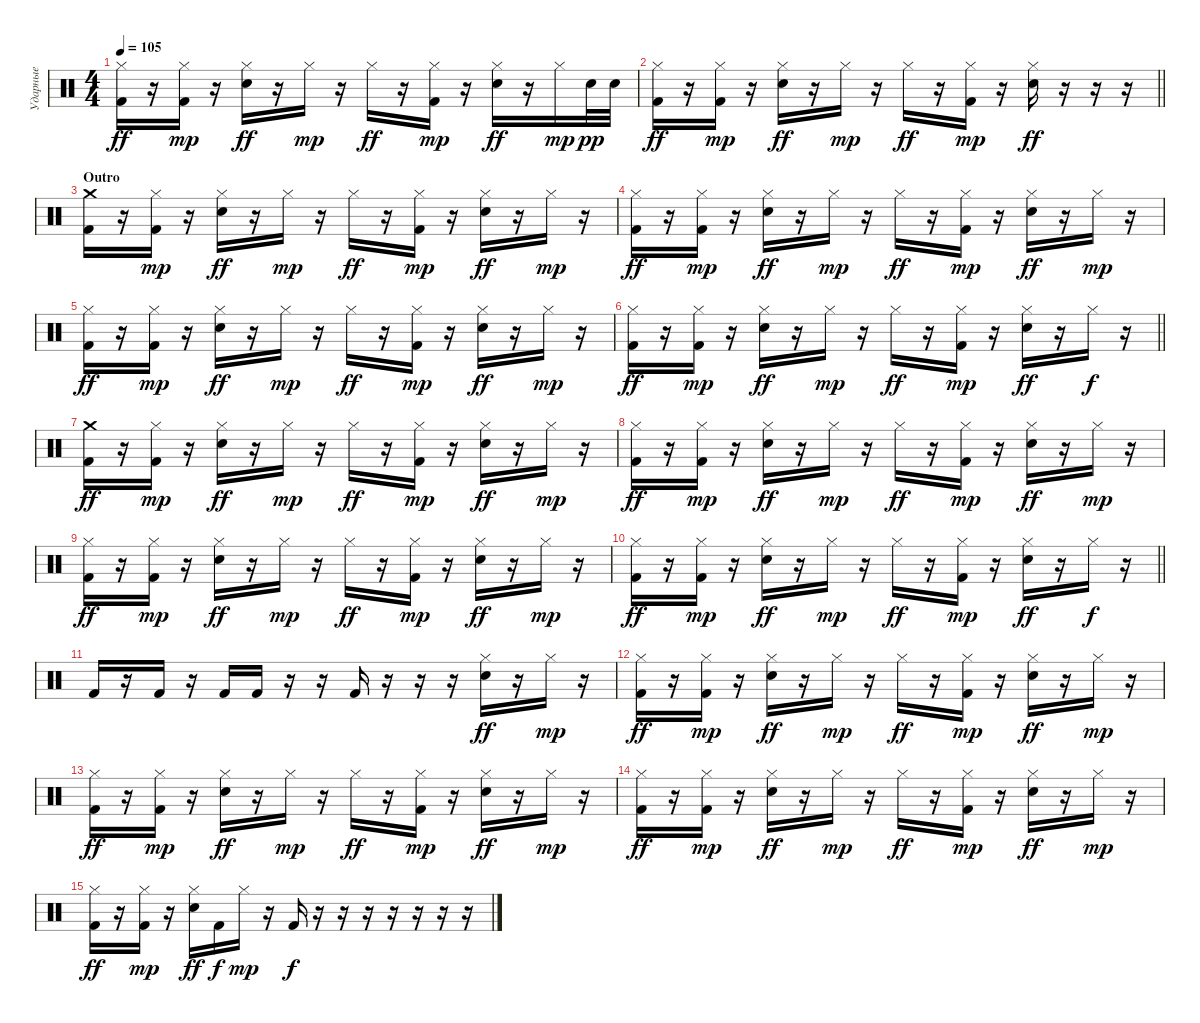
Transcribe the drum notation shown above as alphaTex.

\track ("Ударные" "Ударные") {instrument percussion}
\staff {score}
\articulation defaults
\ts (4 4)
\tempo 105
\clef neutral
\ks c
("Hi-Hat (closed)" "Kick (hit) 2").16{dy ff} r.16 ("Hi-Hat (closed)" "Kick (hit) 2").16{dy mp} r.16 ("Hi-Hat (closed)" "Electric Snare (hit)").16{dy ff} r.16 "Hi-Hat (closed)".16{dy mp} r.16 "Hi-Hat (closed)".16{dy ff} r.16 ("Hi-Hat (closed)" "Kick (hit) 2").16{dy mp} r.16 ("Hi-Hat (closed)" "Electric Snare (hit)").16{dy ff} r.16 "Hi-Hat (closed)".16{dy mp} "Electric Snare (hit)".32{dy pp} "Electric Snare (hit)".32 |
\barLineRight lightlight
("Hi-Hat (closed)" "Kick (hit) 2").16{dy ff} r.16 ("Hi-Hat (closed)" "Kick (hit) 2").16{dy mp} r.16 ("Hi-Hat (closed)" "Electric Snare (hit)").16{dy ff} r.16 "Hi-Hat (closed)".16{dy mp} r.16 "Hi-Hat (closed)".16{dy ff} r.16 ("Hi-Hat (closed)" "Kick (hit) 2").16{dy mp} r.16 ("Hi-Hat (closed)" "Electric Snare (hit)").16{dy ff} r.16 r.16 r.16 |
\section ("" "Outro")
("Crash medium (hit)" "Kick (hit) 2").16 r.16 ("Hi-Hat (closed)" "Kick (hit) 2").16{dy mp} r.16 ("Hi-Hat (closed)" "Electric Snare (hit)").16{dy ff} r.16 "Hi-Hat (closed)".16{dy mp} r.16 "Hi-Hat (closed)".16{dy ff} r.16 ("Hi-Hat (closed)" "Kick (hit) 2").16{dy mp} r.16 ("Hi-Hat (closed)" "Electric Snare (hit)").16{dy ff} r.16 "Hi-Hat (closed)".16{dy mp} r.16 |
("Hi-Hat (closed)" "Kick (hit) 2").16{dy ff} r.16 ("Hi-Hat (closed)" "Kick (hit) 2").16{dy mp} r.16 ("Hi-Hat (closed)" "Electric Snare (hit)").16{dy ff} r.16 "Hi-Hat (closed)".16{dy mp} r.16 "Hi-Hat (closed)".16{dy ff} r.16 ("Hi-Hat (closed)" "Kick (hit) 2").16{dy mp} r.16 ("Hi-Hat (closed)" "Electric Snare (hit)").16{dy ff} r.16 "Hi-Hat (closed)".16{dy mp} r.16 |
("Hi-Hat (closed)" "Kick (hit) 2").16{dy ff} r.16 ("Hi-Hat (closed)" "Kick (hit) 2").16{dy mp} r.16 ("Hi-Hat (closed)" "Electric Snare (hit)").16{dy ff} r.16 "Hi-Hat (closed)".16{dy mp} r.16 "Hi-Hat (closed)".16{dy ff} r.16 ("Hi-Hat (closed)" "Kick (hit) 2").16{dy mp} r.16 ("Hi-Hat (closed)" "Electric Snare (hit)").16{dy ff} r.16 "Hi-Hat (closed)".16{dy mp} r.16 |
\barLineRight lightlight
("Hi-Hat (closed)" "Kick (hit) 2").16{dy ff} r.16 ("Hi-Hat (closed)" "Kick (hit) 2").16{dy mp} r.16 ("Hi-Hat (closed)" "Electric Snare (hit)").16{dy ff} r.16 "Hi-Hat (closed)".16{dy mp} r.16 "Hi-Hat (closed)".16{dy ff} r.16 ("Hi-Hat (closed)" "Kick (hit) 2").16{dy mp} r.16 ("Hi-Hat (closed)" "Electric Snare (hit)").16{dy ff} r.16 "Hi-Hat (closed)".16{dy f} r.16 |
("Crash medium (hit)" "Kick (hit) 2").16{dy ff} r.16 ("Hi-Hat (closed)" "Kick (hit) 2").16{dy mp} r.16 ("Hi-Hat (closed)" "Electric Snare (hit)").16{dy ff} r.16 "Hi-Hat (closed)".16{dy mp} r.16 "Hi-Hat (closed)".16{dy ff} r.16 ("Hi-Hat (closed)" "Kick (hit) 2").16{dy mp} r.16 ("Hi-Hat (closed)" "Electric Snare (hit)").16{dy ff} r.16 "Hi-Hat (closed)".16{dy mp} r.16 |
("Hi-Hat (closed)" "Kick (hit) 2").16{dy ff} r.16 ("Hi-Hat (closed)" "Kick (hit) 2").16{dy mp} r.16 ("Hi-Hat (closed)" "Electric Snare (hit)").16{dy ff} r.16 "Hi-Hat (closed)".16{dy mp} r.16 "Hi-Hat (closed)".16{dy ff} r.16 ("Hi-Hat (closed)" "Kick (hit) 2").16{dy mp} r.16 ("Hi-Hat (closed)" "Electric Snare (hit)").16{dy ff} r.16 "Hi-Hat (closed)".16{dy mp} r.16 |
("Hi-Hat (closed)" "Kick (hit) 2").16{dy ff} r.16 ("Hi-Hat (closed)" "Kick (hit) 2").16{dy mp} r.16 ("Hi-Hat (closed)" "Electric Snare (hit)").16{dy ff} r.16 "Hi-Hat (closed)".16{dy mp} r.16 "Hi-Hat (closed)".16{dy ff} r.16 ("Hi-Hat (closed)" "Kick (hit) 2").16{dy mp} r.16 ("Hi-Hat (closed)" "Electric Snare (hit)").16{dy ff} r.16 "Hi-Hat (closed)".16{dy mp} r.16 |
\barLineRight lightlight
("Hi-Hat (closed)" "Kick (hit) 2").16{dy ff} r.16 ("Hi-Hat (closed)" "Kick (hit) 2").16{dy mp} r.16 ("Hi-Hat (closed)" "Electric Snare (hit)").16{dy ff} r.16 "Hi-Hat (closed)".16{dy mp} r.16 "Hi-Hat (closed)".16{dy ff} r.16 ("Hi-Hat (closed)" "Kick (hit) 2").16{dy mp} r.16 ("Hi-Hat (closed)" "Electric Snare (hit)").16{dy ff} r.16 "Hi-Hat (closed)".16{dy f} r.16 |
"Kick (hit) 2".16 r.16 "Kick (hit) 2".16 r.16 "Kick (hit) 2".16 "Kick (hit) 2".16 r.16 r.16 "Kick (hit) 2".16 r.16 r.16 r.16 ("Hi-Hat (closed)" "Electric Snare (hit)").16{dy ff} r.16 "Hi-Hat (closed)".16{dy mp} r.16 |
("Hi-Hat (closed)" "Kick (hit) 2").16{dy ff} r.16 ("Hi-Hat (closed)" "Kick (hit) 2").16{dy mp} r.16 ("Hi-Hat (closed)" "Electric Snare (hit)").16{dy ff} r.16 "Hi-Hat (closed)".16{dy mp} r.16 "Hi-Hat (closed)".16{dy ff} r.16 ("Hi-Hat (closed)" "Kick (hit) 2").16{dy mp} r.16 ("Hi-Hat (closed)" "Electric Snare (hit)").16{dy ff} r.16 "Hi-Hat (closed)".16{dy mp} r.16 |
("Hi-Hat (closed)" "Kick (hit) 2").16{dy ff} r.16 ("Hi-Hat (closed)" "Kick (hit) 2").16{dy mp} r.16 ("Hi-Hat (closed)" "Electric Snare (hit)").16{dy ff} r.16 "Hi-Hat (closed)".16{dy mp} r.16 "Hi-Hat (closed)".16{dy ff} r.16 ("Hi-Hat (closed)" "Kick (hit) 2").16{dy mp} r.16 ("Hi-Hat (closed)" "Electric Snare (hit)").16{dy ff} r.16 "Hi-Hat (closed)".16{dy mp} r.16 |
("Hi-Hat (closed)" "Kick (hit) 2").16{dy ff} r.16 ("Hi-Hat (closed)" "Kick (hit) 2").16{dy mp} r.16 ("Hi-Hat (closed)" "Electric Snare (hit)").16{dy ff} r.16 "Hi-Hat (closed)".16{dy mp} r.16 "Hi-Hat (closed)".16{dy ff} r.16 ("Hi-Hat (closed)" "Kick (hit) 2").16{dy mp} r.16 ("Hi-Hat (closed)" "Electric Snare (hit)").16{dy ff} r.16 "Hi-Hat (closed)".16{dy mp} r.16 |
("Hi-Hat (closed)" "Kick (hit) 2").16{dy ff} r.16 ("Hi-Hat (closed)" "Kick (hit) 2").16{dy mp} r.16 ("Hi-Hat (closed)" "Electric Snare (hit)").16{dy ff} "Kick (hit) 2".16{dy f} "Hi-Hat (closed)".16{dy mp} r.16 "Kick (hit) 2".16{dy f} r.16 r.16 r.16 r.16 r.16 r.16 r.16
